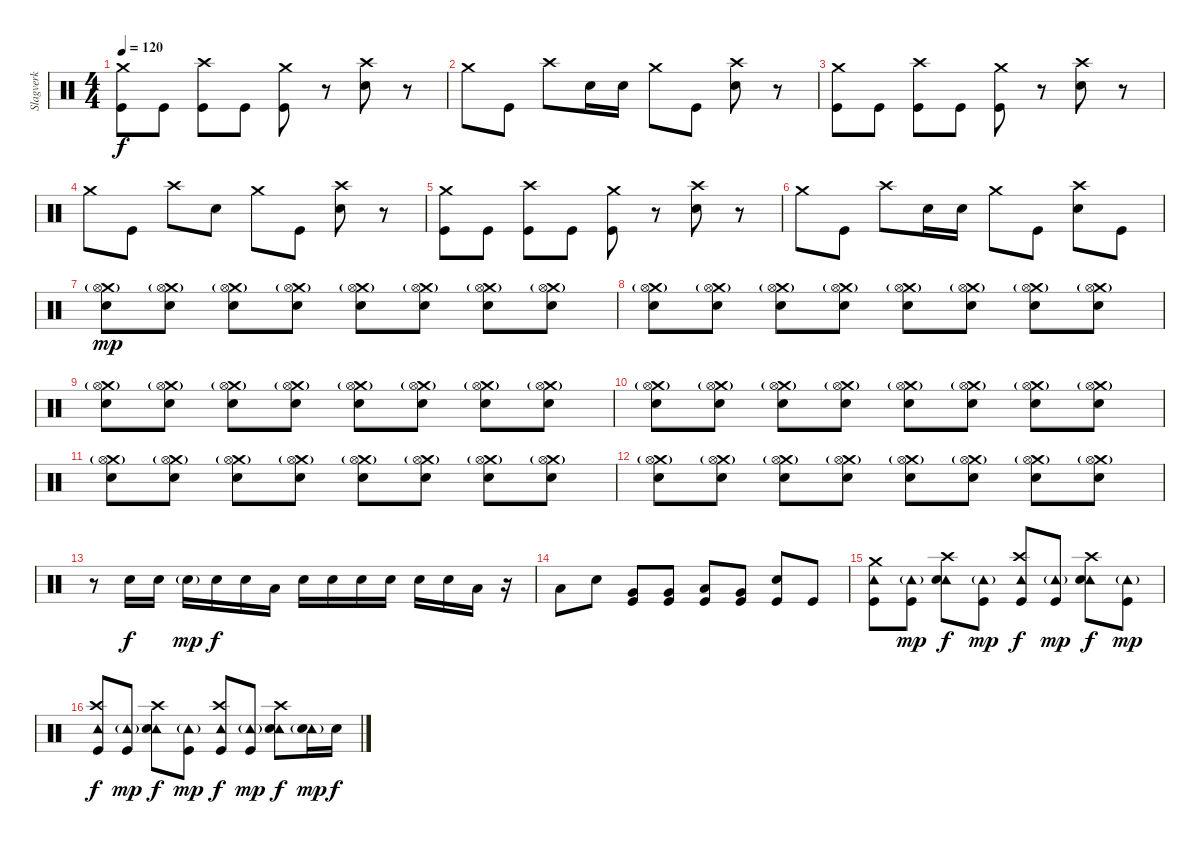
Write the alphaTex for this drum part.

\track ("Slagverk" "Slagverk") {instrument percussion}
\staff {score}
\articulation defaults
\ts (4 4)
\tempo 120
\clef neutral
\ks c
("Crash medium (hit)" "Kick (hit)").8{dy f} "Kick (hit)".8 ("Crash high (hit)" "Kick (hit)").8 "Kick (hit)".8 ("Crash medium (hit)" "Kick (hit)").8 r.8 ("Crash high (hit)" "Snare (hit) 2").8 r.8 |
"Crash medium (hit)".8 "Kick (hit)".8 "Crash high (hit)".8 "Snare (hit) 2".16 "Snare (hit) 2".16 "Crash medium (hit)".8 "Kick (hit)".8 ("Crash high (hit)" "Snare (hit) 2").8 r.8 |
("Crash medium (hit)" "Kick (hit)").8 "Kick (hit)".8 ("Crash high (hit)" "Kick (hit)").8 "Kick (hit)".8 ("Crash medium (hit)" "Kick (hit)").8 r.8 ("Crash high (hit)" "Snare (hit) 2").8 r.8 |
"Crash medium (hit)".8 "Kick (hit)".8 "Crash high (hit)".8 "Snare (hit) 2".8 "Crash medium (hit)".8 "Kick (hit)".8 ("Crash high (hit)" "Snare (hit) 2").8 r.8 |
("Crash medium (hit)" "Kick (hit)").8 "Kick (hit)".8 ("Crash high (hit)" "Kick (hit)").8 "Kick (hit)".8 ("Crash medium (hit)" "Kick (hit)").8 r.8 ("Crash high (hit)" "Snare (hit) 2").8 r.8 |
"Crash medium (hit)".8 "Kick (hit)".8 "Crash high (hit)".8 "Snare (hit) 2".16 "Snare (hit) 2".16 "Crash medium (hit)".8 "Kick (hit)".8 ("Crash high (hit)" "Snare (hit) 2").8 "Kick (hit)".8 |
("Crash medium (hit)"{g} "Hi-Hat (open)" "Snare (hit) 2").8{dy mp} ("Crash medium (hit)"{g} "Hi-Hat (open)" "Snare (hit) 2").8 ("Crash medium (hit)"{g} "Hi-Hat (open)" "Snare (hit) 2").8 ("Crash medium (hit)"{g} "Hi-Hat (open)" "Snare (hit) 2").8 ("Crash medium (hit)"{g} "Hi-Hat (open)" "Snare (hit) 2").8 ("Crash medium (hit)"{g} "Hi-Hat (open)" "Snare (hit) 2").8 ("Crash medium (hit)"{g} "Hi-Hat (open)" "Snare (hit) 2").8 ("Crash medium (hit)"{g} "Hi-Hat (open)" "Snare (hit) 2").8 |
("Crash medium (hit)"{g} "Hi-Hat (open)" "Snare (hit) 2").8 ("Crash medium (hit)"{g} "Hi-Hat (open)" "Snare (hit) 2").8 ("Crash medium (hit)"{g} "Hi-Hat (open)" "Snare (hit) 2").8 ("Crash medium (hit)"{g} "Hi-Hat (open)" "Snare (hit) 2").8 ("Crash medium (hit)"{g} "Hi-Hat (open)" "Snare (hit) 2").8 ("Crash medium (hit)"{g} "Hi-Hat (open)" "Snare (hit) 2").8 ("Crash medium (hit)"{g} "Hi-Hat (open)" "Snare (hit) 2").8 ("Crash medium (hit)"{g} "Hi-Hat (open)" "Snare (hit) 2").8 |
("Crash medium (hit)"{g} "Hi-Hat (open)" "Snare (hit) 2").8 ("Crash medium (hit)"{g} "Hi-Hat (open)" "Snare (hit) 2").8 ("Crash medium (hit)"{g} "Hi-Hat (open)" "Snare (hit) 2").8 ("Crash medium (hit)"{g} "Hi-Hat (open)" "Snare (hit) 2").8 ("Crash medium (hit)"{g} "Hi-Hat (open)" "Snare (hit) 2").8 ("Crash medium (hit)"{g} "Hi-Hat (open)" "Snare (hit) 2").8 ("Crash medium (hit)"{g} "Hi-Hat (open)" "Snare (hit) 2").8 ("Crash medium (hit)"{g} "Hi-Hat (open)" "Snare (hit) 2").8 |
("Crash medium (hit)"{g} "Hi-Hat (open)" "Snare (hit) 2").8 ("Crash medium (hit)"{g} "Hi-Hat (open)" "Snare (hit) 2").8 ("Crash medium (hit)"{g} "Hi-Hat (open)" "Snare (hit) 2").8 ("Crash medium (hit)"{g} "Hi-Hat (open)" "Snare (hit) 2").8 ("Crash medium (hit)"{g} "Hi-Hat (open)" "Snare (hit) 2").8 ("Crash medium (hit)"{g} "Hi-Hat (open)" "Snare (hit) 2").8 ("Crash medium (hit)"{g} "Hi-Hat (open)" "Snare (hit) 2").8 ("Crash medium (hit)"{g} "Hi-Hat (open)" "Snare (hit) 2").8 |
("Crash medium (hit)"{g} "Hi-Hat (open)" "Snare (hit) 2").8 ("Crash medium (hit)"{g} "Hi-Hat (open)" "Snare (hit) 2").8 ("Crash medium (hit)"{g} "Hi-Hat (open)" "Snare (hit) 2").8 ("Crash medium (hit)"{g} "Hi-Hat (open)" "Snare (hit) 2").8 ("Crash medium (hit)"{g} "Hi-Hat (open)" "Snare (hit) 2").8 ("Crash medium (hit)"{g} "Hi-Hat (open)" "Snare (hit) 2").8 ("Crash medium (hit)"{g} "Hi-Hat (open)" "Snare (hit) 2").8 ("Crash medium (hit)"{g} "Hi-Hat (open)" "Snare (hit) 2").8 |
("Crash medium (hit)"{g} "Hi-Hat (open)" "Snare (hit) 2").8 ("Crash medium (hit)"{g} "Hi-Hat (open)" "Snare (hit) 2").8 ("Crash medium (hit)"{g} "Hi-Hat (open)" "Snare (hit) 2").8 ("Crash medium (hit)"{g} "Hi-Hat (open)" "Snare (hit) 2").8 ("Crash medium (hit)"{g} "Hi-Hat (open)" "Snare (hit) 2").8 ("Crash medium (hit)"{g} "Hi-Hat (open)" "Snare (hit) 2").8 ("Crash medium (hit)"{g} "Hi-Hat (open)" "Snare (hit) 2").8 ("Crash medium (hit)"{g} "Hi-Hat (open)" "Snare (hit) 2").8 |
r.8 "Snare (hit) 2".16{dy f} "Snare (hit) 2".16 "Snare (hit) 2"{g}.16{dy mp} "Snare (hit) 2".16{dy f} "Snare (hit) 2".16 "Low Tom (hit)".16 "Snare (hit) 2".16 "Snare (hit) 2".16 "Snare (hit) 2".16 "Snare (hit) 2".16 "Snare (hit) 2".16 "Snare (hit) 2".16 "Low Tom (hit)".16 r.16 |
"Low Floor Tom (hit)".8 "Snare (hit) 2".8 ("Very Low Tom (hit)" "Kick (hit)").8 ("Very Low Tom (hit)" "Kick (hit)").8 ("Low Tom (hit)" "Kick (hit)").8 ("Very Low Tom (hit)" "Kick (hit)").8 ("Snare (hit) 2" "Kick (hit)").8 "Kick (hit)".8 |
("Crash medium (hit)" "Tambourine (hit)" "Kick (hit)").8 ("Tambourine (hit)"{g} "Kick (hit)").8{dy mp} ("Crash high (hit)" "Tambourine (hit)" "Snare (hit) 2").8{dy f} ("Tambourine (hit)"{g} "Kick (hit)").8{dy mp} ("Crash high (hit)" "Tambourine (hit)" "Kick (hit)").8{dy f} ("Tambourine (hit)"{g} "Kick (hit)").8{dy mp} ("Crash high (hit)" "Tambourine (hit)" "Snare (hit) 2").8{dy f} ("Tambourine (hit)"{g} "Kick (hit)").8{dy mp} |
("Crash high (hit)" "Tambourine (hit)" "Kick (hit)").8{dy f} ("Tambourine (hit)"{g} "Kick (hit)").8{dy mp} ("Crash high (hit)" "Tambourine (hit)" "Snare (hit) 2").8{dy f} ("Tambourine (hit)"{g} "Kick (hit)").8{dy mp} ("Crash high (hit)" "Tambourine (hit)" "Kick (hit)").8{dy f} ("Tambourine (hit)"{g} "Kick (hit)").8{dy mp} ("Crash high (hit)" "Tambourine (hit)" "Snare (hit) 2").8{dy f} ("Tambourine (hit)"{g} "Snare (hit) 2").16{dy mp} "Snare (hit) 2".16{dy f}
